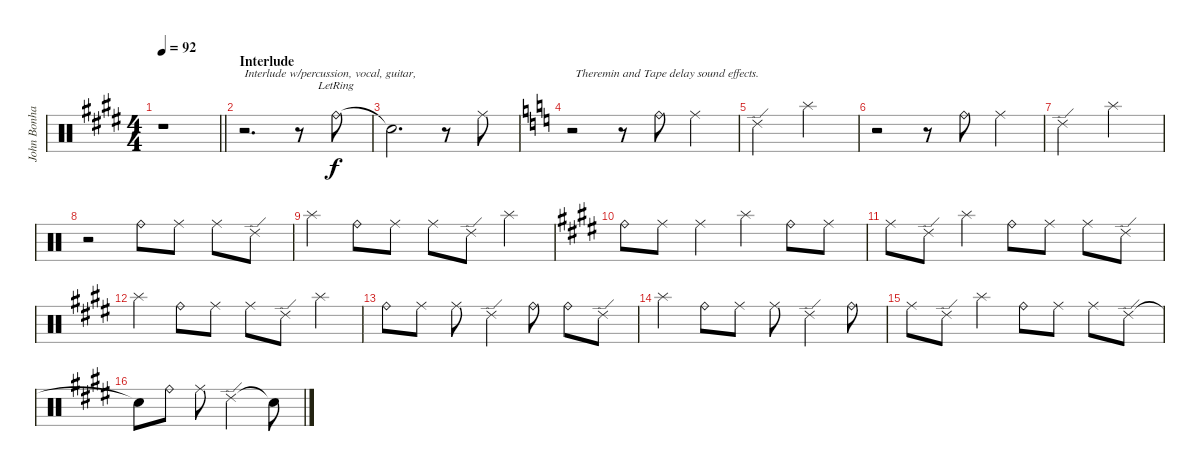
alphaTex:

\track ("John Bonham Percusive Kit" "John Bonha") {instrument percussion}
\staff {score}
\articulation defaults
\ts (4 4)
\tempo 92
\clef neutral
\barLineRight lightlight
\ks e
r.1{dy f} |
\section ("" "Interlude")
r.2{d txt "Interlude w/percussion, vocal, guitar," volume 16} r.8 "Ride (bell)"{lr}.8 |
"Snare (hit)"{t}.2{d} r.8 "Ride (middle)".8 |
\ks c
r.2{txt " Theremin and Tape delay sound effects."} r.8 "Ride (bell)".8 "Ride (middle)".4 |
"Ride (edge) 2".2 "Splash (hit)".2 |
r.2 r.8 "Ride (bell)".8 "Ride (middle)".4 |
"Ride (edge) 2".2 "Splash (hit)".2 |
r.2 "Ride (bell)".8 "Ride (middle)".8 "Ride (middle)".8 "Ride (edge) 2".8 |
"Splash (hit)".4 "Ride (bell)".8 "Ride (middle)".8 "Ride (middle)".8 "Ride (edge) 2".8 "Splash (hit)".4 |
\ks e "Ride (bell)".8 "Ride (middle)".8 "Ride (middle)".4 "Splash (hit)".4 "Ride (bell)".8 "Ride (middle)".8
|
"Ride (middle)".8 "Ride (edge) 2".8 "Splash (hit)".4 "Ride (bell)".8 "Ride (middle)".8 "Ride (middle)".8 "Ride (edge) 2".8 |
"Splash (hit)".4 "Ride (bell)".8 "Ride (middle)".8 "Ride (middle)".8 "Ride (edge) 2".8 "Splash (hit)".4 |
"Ride (bell)".8 "Ride (middle)".8 "Ride (middle)".8 "Ride (edge) 2".4 "Ride (bell)".8 "Ride (bell)".8 "Ride (edge) 2".8 |
"Splash (hit)".4 "Ride (bell)".8 "Ride (middle)".8 "Ride (middle)".8 "Ride (edge) 2".4 "Ride (bell)".8 |
"Ride (middle)".8 "Ride (edge) 2".8 "Splash (hit)".4 "Ride (bell)".8 "Ride (middle)".8 "Ride (middle)".8 "Ride (edge) 2".8 |
"Snare (hit)"{t}.8 "Ride (bell)".8 "Ride (middle)".8 "Ride (edge) 2".2 "Snare (hit)"{t}.8
